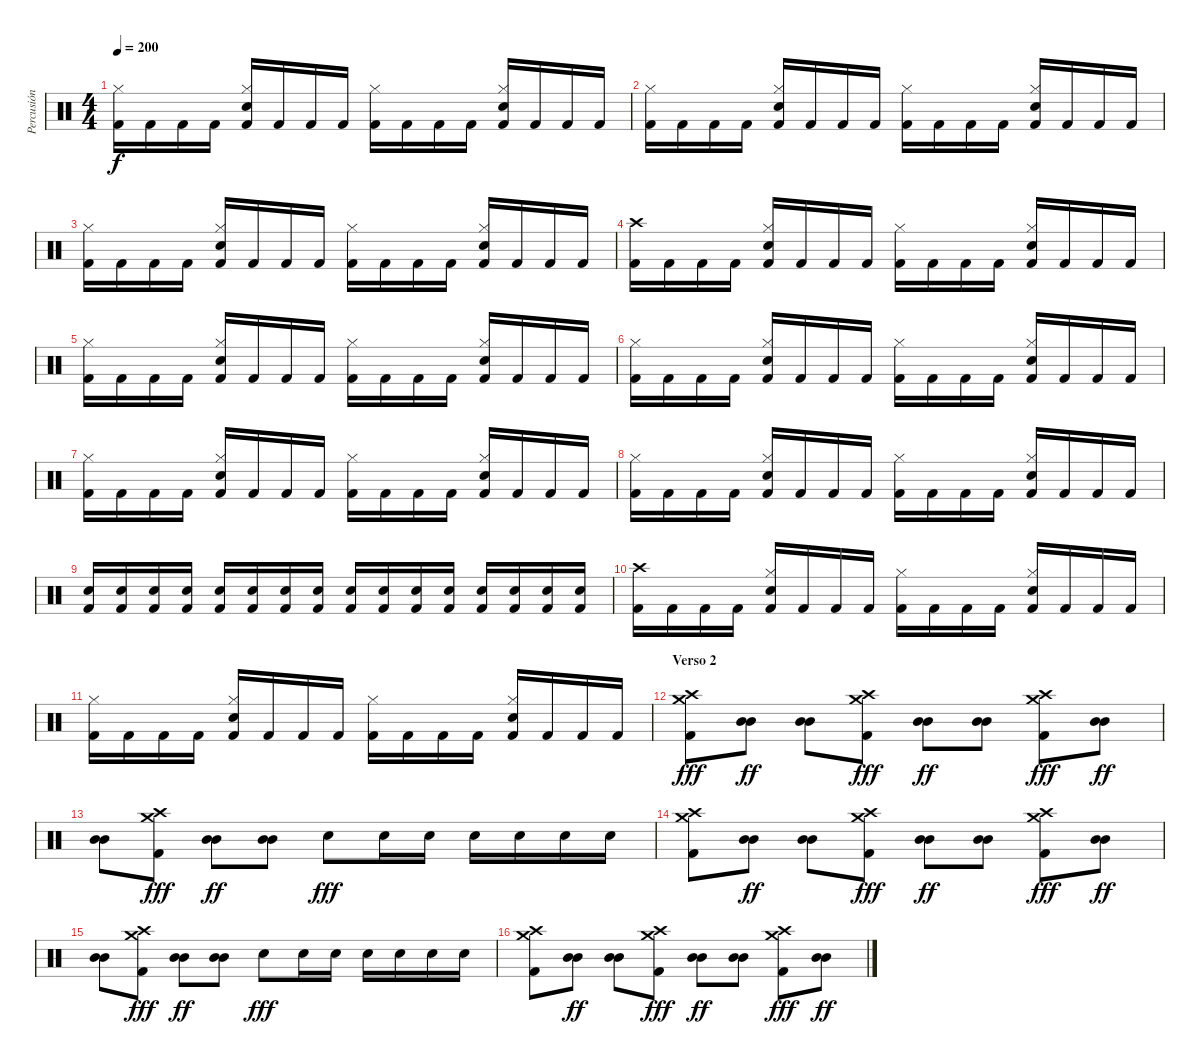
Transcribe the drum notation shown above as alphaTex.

\track ("Percusión" "Percusión") {instrument percussion}
\staff {score}
\articulation defaults
\ts (4 4)
\tempo 200
\clef neutral
\ks c
("Kick (hit) 2" "Hi-Hat (closed)").16{dy f} "Kick (hit) 2".16 "Kick (hit) 2".16 "Kick (hit) 2".16 ("Kick (hit) 2" "Hi-Hat (closed)" "Snare (hit) 2").16 "Kick (hit) 2".16 "Kick (hit) 2".16 "Kick (hit) 2".16 ("Kick (hit) 2" "Hi-Hat (closed)").16 "Kick (hit) 2".16 "Kick (hit) 2".16 "Kick (hit) 2".16 ("Kick (hit) 2" "Hi-Hat (closed)" "Snare (hit) 2").16 "Kick (hit) 2".16 "Kick (hit) 2".16 "Kick (hit) 2".16 |
("Kick (hit) 2" "Hi-Hat (closed)").16 "Kick (hit) 2".16 "Kick (hit) 2".16 "Kick (hit) 2".16 ("Kick (hit) 2" "Hi-Hat (closed)" "Snare (hit) 2").16 "Kick (hit) 2".16 "Kick (hit) 2".16 "Kick (hit) 2".16 ("Kick (hit) 2" "Hi-Hat (closed)").16 "Kick (hit) 2".16 "Kick (hit) 2".16 "Kick (hit) 2".16 ("Kick (hit) 2" "Hi-Hat (closed)" "Snare (hit) 2").16 "Kick (hit) 2".16 "Kick (hit) 2".16 "Kick (hit) 2".16 |
("Kick (hit) 2" "Hi-Hat (closed)").16 "Kick (hit) 2".16 "Kick (hit) 2".16 "Kick (hit) 2".16 ("Kick (hit) 2" "Hi-Hat (closed)" "Snare (hit) 2").16 "Kick (hit) 2".16 "Kick (hit) 2".16 "Kick (hit) 2".16 ("Kick (hit) 2" "Hi-Hat (closed)").16 "Kick (hit) 2".16 "Kick (hit) 2".16 "Kick (hit) 2".16 ("Kick (hit) 2" "Hi-Hat (closed)" "Snare (hit) 2").16 "Kick (hit) 2".16 "Kick (hit) 2".16 "Kick (hit) 2".16 |
("Kick (hit) 2" "Crash high (hit)").16 "Kick (hit) 2".16 "Kick (hit) 2".16 "Kick (hit) 2".16 ("Kick (hit) 2" "Hi-Hat (closed)" "Snare (hit) 2").16 "Kick (hit) 2".16 "Kick (hit) 2".16 "Kick (hit) 2".16 ("Kick (hit) 2" "Hi-Hat (closed)").16 "Kick (hit) 2".16 "Kick (hit) 2".16 "Kick (hit) 2".16 ("Kick (hit) 2" "Hi-Hat (closed)" "Snare (hit) 2").16 "Kick (hit) 2".16 "Kick (hit) 2".16 "Kick (hit) 2".16 |
("Kick (hit) 2" "Hi-Hat (closed)").16 "Kick (hit) 2".16 "Kick (hit) 2".16 "Kick (hit) 2".16 ("Kick (hit) 2" "Hi-Hat (closed)" "Snare (hit) 2").16 "Kick (hit) 2".16 "Kick (hit) 2".16 "Kick (hit) 2".16 ("Kick (hit) 2" "Hi-Hat (closed)").16 "Kick (hit) 2".16 "Kick (hit) 2".16 "Kick (hit) 2".16 ("Kick (hit) 2" "Hi-Hat (closed)" "Snare (hit) 2").16 "Kick (hit) 2".16 "Kick (hit) 2".16 "Kick (hit) 2".16 |
("Kick (hit) 2" "Hi-Hat (closed)").16 "Kick (hit) 2".16 "Kick (hit) 2".16 "Kick (hit) 2".16 ("Kick (hit) 2" "Hi-Hat (closed)" "Snare (hit) 2").16 "Kick (hit) 2".16 "Kick (hit) 2".16 "Kick (hit) 2".16 ("Kick (hit) 2" "Hi-Hat (closed)").16 "Kick (hit) 2".16 "Kick (hit) 2".16 "Kick (hit) 2".16 ("Kick (hit) 2" "Hi-Hat (closed)" "Snare (hit) 2").16 "Kick (hit) 2".16 "Kick (hit) 2".16 "Kick (hit) 2".16 |
("Kick (hit) 2" "Hi-Hat (closed)").16 "Kick (hit) 2".16 "Kick (hit) 2".16 "Kick (hit) 2".16 ("Kick (hit) 2" "Hi-Hat (closed)" "Snare (hit) 2").16 "Kick (hit) 2".16 "Kick (hit) 2".16 "Kick (hit) 2".16 ("Kick (hit) 2" "Hi-Hat (closed)").16 "Kick (hit) 2".16 "Kick (hit) 2".16 "Kick (hit) 2".16 ("Kick (hit) 2" "Hi-Hat (closed)" "Snare (hit) 2").16 "Kick (hit) 2".16 "Kick (hit) 2".16 "Kick (hit) 2".16 |
("Kick (hit) 2" "Hi-Hat (closed)").16 "Kick (hit) 2".16 "Kick (hit) 2".16 "Kick (hit) 2".16 ("Kick (hit) 2" "Hi-Hat (closed)" "Snare (hit) 2").16 "Kick (hit) 2".16 "Kick (hit) 2".16 "Kick (hit) 2".16 ("Kick (hit) 2" "Hi-Hat (closed)").16 "Kick (hit) 2".16 "Kick (hit) 2".16 "Kick (hit) 2".16 ("Kick (hit) 2" "Hi-Hat (closed)" "Snare (hit) 2").16 "Kick (hit) 2".16 "Kick (hit) 2".16 "Kick (hit) 2".16 |
("Snare (hit) 2" "Kick (hit) 2").16 ("Snare (hit) 2" "Kick (hit) 2").16 ("Snare (hit) 2" "Kick (hit) 2").16 ("Snare (hit) 2" "Kick (hit) 2").16 ("Snare (hit) 2" "Kick (hit) 2").16 ("Snare (hit) 2" "Kick (hit) 2").16 ("Snare (hit) 2" "Kick (hit) 2").16 ("Snare (hit) 2" "Kick (hit) 2").16 ("Snare (hit) 2" "Kick (hit) 2").16 ("Snare (hit) 2" "Kick (hit) 2").16 ("Snare (hit) 2" "Kick (hit) 2").16 ("Snare (hit) 2" "Kick (hit) 2").16 ("Snare (hit) 2" "Kick (hit) 2").16 ("Snare (hit) 2" "Kick (hit) 2").16 ("Snare (hit) 2" "Kick (hit) 2").16 ("Snare (hit) 2" "Kick (hit) 2").16 |
("Kick (hit) 2" "Crash high (hit)").16 "Kick (hit) 2".16 "Kick (hit) 2".16 "Kick (hit) 2".16 ("Kick (hit) 2" "Hi-Hat (closed)" "Snare (hit) 2").16 "Kick (hit) 2".16 "Kick (hit) 2".16 "Kick (hit) 2".16 ("Kick (hit) 2" "Hi-Hat (closed)").16 "Kick (hit) 2".16 "Kick (hit) 2".16 "Kick (hit) 2".16 ("Kick (hit) 2" "Hi-Hat (closed)" "Snare (hit) 2").16 "Kick (hit) 2".16 "Kick (hit) 2".16 "Kick (hit) 2".16 |
("Kick (hit) 2" "Hi-Hat (closed)").16 "Kick (hit) 2".16 "Kick (hit) 2".16 "Kick (hit) 2".16 ("Kick (hit) 2" "Hi-Hat (closed)" "Snare (hit) 2").16 "Kick (hit) 2".16 "Kick (hit) 2".16 "Kick (hit) 2".16 ("Kick (hit) 2" "Hi-Hat (closed)").16 "Kick (hit) 2".16 "Kick (hit) 2".16 "Kick (hit) 2".16 ("Kick (hit) 2" "Hi-Hat (closed)" "Snare (hit) 2").16 "Kick (hit) 2".16 "Kick (hit) 2".16 "Kick (hit) 2".16 |
\section ("" "Verso 2")
("Crash high (hit)" "Crash medium (hit)" "Kick (hit) 2").8{dy fff} ("Mid Tom (hit)" "Mid Tom (hit)").8{dy ff} ("Mid Tom (hit)" "Mid Tom (hit)").8 ("Crash high (hit)" "Crash medium (hit)" "Kick (hit) 2").8{dy fff} ("Mid Tom (hit)" "Mid Tom (hit)").8{dy ff} ("Mid Tom (hit)" "Mid Tom (hit)").8 ("Crash high (hit)" "Crash medium (hit)" "Kick (hit) 2").8{dy fff} ("Mid Tom (hit)" "Mid Tom (hit)").8{dy ff} |
("Mid Tom (hit)" "Mid Tom (hit)").8 ("Crash high (hit)" "Crash medium (hit)" "Kick (hit) 2").8{dy fff} ("Mid Tom (hit)" "Mid Tom (hit)").8{dy ff} ("Mid Tom (hit)" "Mid Tom (hit)").8 "Snare (hit) 2".8{dy fff} "Snare (hit) 2".16 "Snare (hit) 2".16 "Snare (hit) 2".16 "Snare (hit) 2".16 "Snare (hit) 2".16 "Snare (hit) 2".16 |
("Crash high (hit)" "Crash medium (hit)" "Kick (hit) 2").8 ("Mid Tom (hit)" "Mid Tom (hit)").8{dy ff} ("Mid Tom (hit)" "Mid Tom (hit)").8 ("Crash high (hit)" "Crash medium (hit)" "Kick (hit) 2").8{dy fff} ("Mid Tom (hit)" "Mid Tom (hit)").8{dy ff} ("Mid Tom (hit)" "Mid Tom (hit)").8 ("Crash high (hit)" "Crash medium (hit)" "Kick (hit) 2").8{dy fff} ("Mid Tom (hit)" "Mid Tom (hit)").8{dy ff} |
("Mid Tom (hit)" "Mid Tom (hit)").8 ("Crash high (hit)" "Crash medium (hit)" "Kick (hit) 2").8{dy fff} ("Mid Tom (hit)" "Mid Tom (hit)").8{dy ff} ("Mid Tom (hit)" "Mid Tom (hit)").8 "Snare (hit) 2".8{dy fff} "Snare (hit) 2".16 "Snare (hit) 2".16 "Snare (hit) 2".16 "Snare (hit) 2".16 "Snare (hit) 2".16 "Snare (hit) 2".16 |
("Crash high (hit)" "Crash medium (hit)" "Kick (hit) 2").8 ("Mid Tom (hit)" "Mid Tom (hit)").8{dy ff} ("Mid Tom (hit)" "Mid Tom (hit)").8 ("Crash high (hit)" "Crash medium (hit)" "Kick (hit) 2").8{dy fff} ("Mid Tom (hit)" "Mid Tom (hit)").8{dy ff} ("Mid Tom (hit)" "Mid Tom (hit)").8 ("Crash high (hit)" "Crash medium (hit)" "Kick (hit) 2").8{dy fff} ("Mid Tom (hit)" "Mid Tom (hit)").8{dy ff}
